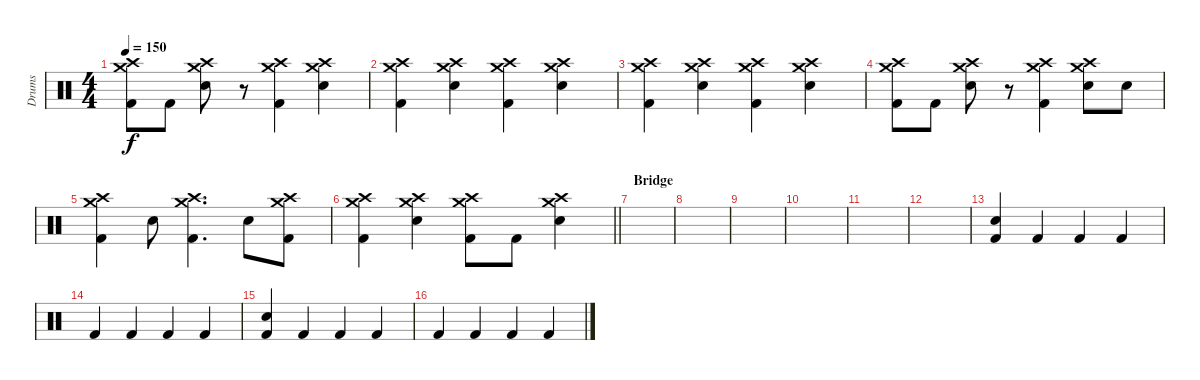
\track ("Drums" "Drums") {instrument percussion}
\staff {score}
\articulation defaults
\ts (4 4)
\tempo 150
\clef neutral
\ks c
("Crash medium (hit)" "Crash high (hit)" "Kick (hit) 2").8{dy f} "Kick (hit) 2".8 ("Crash medium (hit)" "Crash high (hit)" "Electric Snare (hit)").8 r.8 ("Crash medium (hit)" "Crash high (hit)" "Kick (hit) 2").4 ("Crash medium (hit)" "Crash high (hit)" "Electric Snare (hit)").4 |
("Crash medium (hit)" "Crash high (hit)" "Kick (hit) 2").4 ("Crash medium (hit)" "Crash high (hit)" "Electric Snare (hit)").4 ("Crash medium (hit)" "Crash high (hit)" "Kick (hit) 2").4 ("Crash medium (hit)" "Crash high (hit)" "Electric Snare (hit)").4 |
("Crash medium (hit)" "Crash high (hit)" "Kick (hit) 2").4 ("Crash medium (hit)" "Crash high (hit)" "Electric Snare (hit)").4 ("Crash medium (hit)" "Crash high (hit)" "Kick (hit) 2").4 ("Crash medium (hit)" "Crash high (hit)" "Electric Snare (hit)").4 |
("Crash medium (hit)" "Crash high (hit)" "Kick (hit) 2").8 "Kick (hit) 2".8 ("Crash medium (hit)" "Crash high (hit)" "Electric Snare (hit)").8 r.8 ("Crash medium (hit)" "Crash high (hit)" "Kick (hit) 2").4 ("Crash medium (hit)" "Crash high (hit)" "Electric Snare (hit)").8 "Electric Snare (hit)".8 |
("Crash medium (hit)" "Crash high (hit)" "Kick (hit) 2").4 "Electric Snare (hit)".8 ("Crash medium (hit)" "Crash high (hit)" "Kick (hit) 2").4{d} "Electric Snare (hit)".8 ("Crash medium (hit)" "Crash high (hit)" "Kick (hit) 2").8 |
\barLineRight lightlight
("Crash medium (hit)" "Crash high (hit)" "Kick (hit) 2").4 ("Crash medium (hit)" "Crash high (hit)" "Electric Snare (hit)").4 ("Crash medium (hit)" "Crash high (hit)" "Kick (hit) 2").8 "Kick (hit) 2".8 ("Crash medium (hit)" "Crash high (hit)" "Electric Snare (hit)").4 |
\section ("" "Bridge")
|
|
|
|
|
|
("Electric Snare (hit)" "Kick (hit) 2").4 "Kick (hit) 2".4 "Kick (hit) 2".4 "Kick (hit) 2".4 |
"Kick (hit) 2".4 "Kick (hit) 2".4 "Kick (hit) 2".4 "Kick (hit) 2".4 |
("Electric Snare (hit)" "Kick (hit) 2").4 "Kick (hit) 2".4 "Kick (hit) 2".4 "Kick (hit) 2".4 |
"Kick (hit) 2".4 "Kick (hit) 2".4 "Kick (hit) 2".4 "Kick (hit) 2".4
